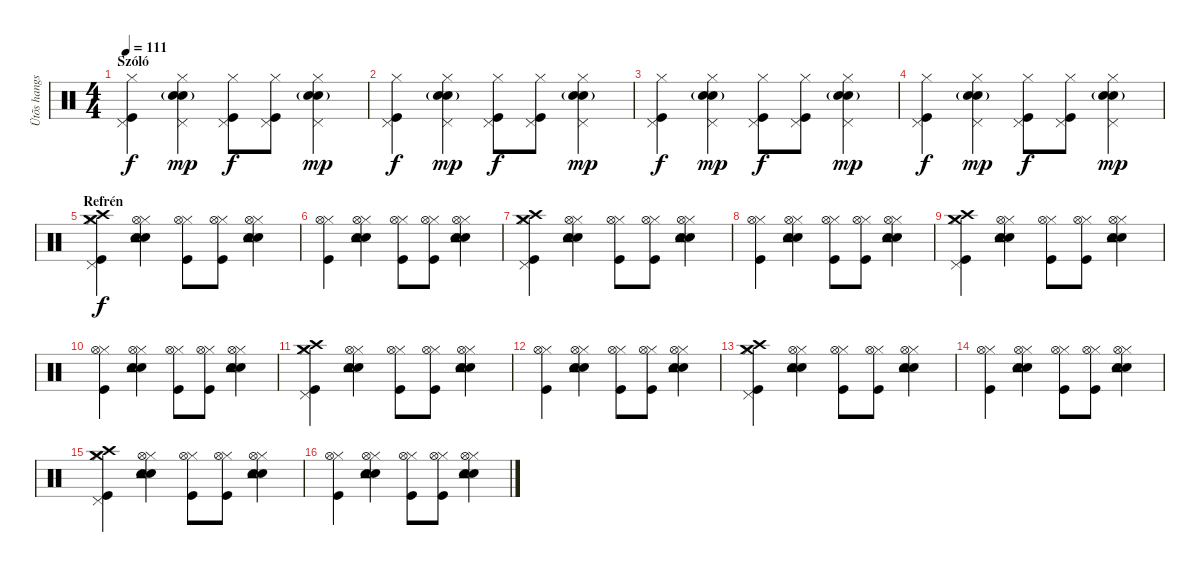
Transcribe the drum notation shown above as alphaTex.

\track ("Ütõs hangszer" "Ütõs hangs") {instrument percussion}
\staff {score}
\articulation defaults
\ts (4 4)
\section ("" "Szóló")
\tempo 111
\clef neutral
\ks c
("Hi-Hat (closed)" "Pedal Hi-Hat (hit)" "Kick (hit)").4{dy f} ("Hi-Hat (closed)" "Electric Snare (hit)"{g} "Snare (hit) 2" "Pedal Hi-Hat (hit)").4{dy mp} ("Hi-Hat (closed)" "Pedal Hi-Hat (hit)" "Kick (hit)").8{dy f} ("Hi-Hat (closed)" "Pedal Hi-Hat (hit)" "Kick (hit)").8 ("Hi-Hat (closed)" "Electric Snare (hit)"{g} "Snare (hit) 2" "Pedal Hi-Hat (hit)").4{dy mp} |
("Hi-Hat (closed)" "Pedal Hi-Hat (hit)" "Kick (hit)").4{dy f} ("Hi-Hat (closed)" "Electric Snare (hit)"{g} "Snare (hit) 2" "Pedal Hi-Hat (hit)").4{dy mp} ("Hi-Hat (closed)" "Pedal Hi-Hat (hit)" "Kick (hit)").8{dy f} ("Hi-Hat (closed)" "Pedal Hi-Hat (hit)" "Kick (hit)").8 ("Hi-Hat (closed)" "Electric Snare (hit)"{g} "Snare (hit) 2" "Pedal Hi-Hat (hit)").4{dy mp} |
("Hi-Hat (closed)" "Pedal Hi-Hat (hit)" "Kick (hit)").4{dy f} ("Hi-Hat (closed)" "Electric Snare (hit)"{g} "Snare (hit) 2" "Pedal Hi-Hat (hit)").4{dy mp} ("Hi-Hat (closed)" "Pedal Hi-Hat (hit)" "Kick (hit)").8{dy f} ("Hi-Hat (closed)" "Pedal Hi-Hat (hit)" "Kick (hit)").8 ("Hi-Hat (closed)" "Electric Snare (hit)"{g} "Snare (hit) 2" "Pedal Hi-Hat (hit)").4{dy mp} |
("Hi-Hat (closed)" "Pedal Hi-Hat (hit)" "Kick (hit)").4{dy f} ("Hi-Hat (closed)" "Electric Snare (hit)"{g} "Snare (hit) 2" "Pedal Hi-Hat (hit)").4{dy mp} ("Hi-Hat (closed)" "Pedal Hi-Hat (hit)" "Kick (hit)").8{dy f} ("Hi-Hat (closed)" "Pedal Hi-Hat (hit)" "Kick (hit)").8 ("Hi-Hat (closed)" "Electric Snare (hit)"{g} "Snare (hit) 2" "Pedal Hi-Hat (hit)").4{dy mp} |
\section ("" "Refrén")
("Hi-Hat (closed)" "Pedal Hi-Hat (hit)" "Crash high (hit)" "Crash medium (hit)" "Kick (hit)").4{dy f} ("Hi-Hat (closed)" "Electric Snare (hit)" "Snare (hit) 2" "Hi-Hat (open)" "Tambourine (hit)").4 ("Hi-Hat (closed)" "Hi-Hat (open)" "Kick (hit)").8 ("Hi-Hat (closed)" "Hi-Hat (open)" "Kick (hit)").8 ("Hi-Hat (closed)" "Electric Snare (hit)" "Snare (hit) 2" "Hi-Hat (open)" "Tambourine (hit)").4 |
("Hi-Hat (closed)" "Hi-Hat (open)" "Kick (hit)").4 ("Hi-Hat (closed)" "Electric Snare (hit)" "Snare (hit) 2" "Hi-Hat (open)" "Tambourine (hit)").4 ("Hi-Hat (closed)" "Hi-Hat (open)" "Kick (hit)").8 ("Hi-Hat (closed)" "Hi-Hat (open)" "Kick (hit)").8 ("Hi-Hat (closed)" "Electric Snare (hit)" "Snare (hit) 2" "Hi-Hat (open)" "Tambourine (hit)").4 |
("Hi-Hat (closed)" "Pedal Hi-Hat (hit)" "Crash high (hit)" "Crash medium (hit)" "Kick (hit)").4 ("Hi-Hat (closed)" "Electric Snare (hit)" "Snare (hit) 2" "Hi-Hat (open)" "Tambourine (hit)").4 ("Hi-Hat (closed)" "Hi-Hat (open)" "Kick (hit)").8 ("Hi-Hat (closed)" "Hi-Hat (open)" "Kick (hit)").8 ("Hi-Hat (closed)" "Electric Snare (hit)" "Snare (hit) 2" "Hi-Hat (open)" "Tambourine (hit)").4 |
("Hi-Hat (closed)" "Hi-Hat (open)" "Kick (hit)").4 ("Hi-Hat (closed)" "Electric Snare (hit)" "Snare (hit) 2" "Hi-Hat (open)" "Tambourine (hit)").4 ("Hi-Hat (closed)" "Hi-Hat (open)" "Kick (hit)").8 ("Hi-Hat (closed)" "Hi-Hat (open)" "Kick (hit)").8 ("Hi-Hat (closed)" "Electric Snare (hit)" "Snare (hit) 2" "Hi-Hat (open)" "Tambourine (hit)").4 |
("Hi-Hat (closed)" "Pedal Hi-Hat (hit)" "Crash high (hit)" "Crash medium (hit)" "Kick (hit)").4 ("Hi-Hat (closed)" "Electric Snare (hit)" "Snare (hit) 2" "Hi-Hat (open)" "Tambourine (hit)").4 ("Hi-Hat (closed)" "Hi-Hat (open)" "Kick (hit)").8 ("Hi-Hat (closed)" "Hi-Hat (open)" "Kick (hit)").8 ("Hi-Hat (closed)" "Electric Snare (hit)" "Snare (hit) 2" "Hi-Hat (open)" "Tambourine (hit)").4 |
("Hi-Hat (closed)" "Hi-Hat (open)" "Kick (hit)").4 ("Hi-Hat (closed)" "Electric Snare (hit)" "Snare (hit) 2" "Hi-Hat (open)" "Tambourine (hit)").4 ("Hi-Hat (closed)" "Hi-Hat (open)" "Kick (hit)").8 ("Hi-Hat (closed)" "Hi-Hat (open)" "Kick (hit)").8 ("Hi-Hat (closed)" "Electric Snare (hit)" "Snare (hit) 2" "Hi-Hat (open)" "Tambourine (hit)").4 |
("Hi-Hat (closed)" "Pedal Hi-Hat (hit)" "Crash high (hit)" "Crash medium (hit)" "Kick (hit)").4 ("Hi-Hat (closed)" "Electric Snare (hit)" "Snare (hit) 2" "Hi-Hat (open)" "Tambourine (hit)").4 ("Hi-Hat (closed)" "Hi-Hat (open)" "Kick (hit)").8 ("Hi-Hat (closed)" "Hi-Hat (open)" "Kick (hit)").8 ("Hi-Hat (closed)" "Electric Snare (hit)" "Snare (hit) 2" "Hi-Hat (open)" "Tambourine (hit)").4 |
("Hi-Hat (closed)" "Hi-Hat (open)" "Kick (hit)").4 ("Hi-Hat (closed)" "Electric Snare (hit)" "Snare (hit) 2" "Hi-Hat (open)" "Tambourine (hit)").4 ("Hi-Hat (closed)" "Hi-Hat (open)" "Kick (hit)").8 ("Hi-Hat (closed)" "Hi-Hat (open)" "Kick (hit)").8 ("Hi-Hat (closed)" "Electric Snare (hit)" "Snare (hit) 2" "Hi-Hat (open)" "Tambourine (hit)").4 |
("Hi-Hat (closed)" "Pedal Hi-Hat (hit)" "Crash high (hit)" "Crash medium (hit)" "Kick (hit)").4 ("Hi-Hat (closed)" "Electric Snare (hit)" "Snare (hit) 2" "Hi-Hat (open)" "Tambourine (hit)").4 ("Hi-Hat (closed)" "Hi-Hat (open)" "Kick (hit)").8 ("Hi-Hat (closed)" "Hi-Hat (open)" "Kick (hit)").8 ("Hi-Hat (closed)" "Electric Snare (hit)" "Snare (hit) 2" "Hi-Hat (open)" "Tambourine (hit)").4 |
("Hi-Hat (closed)" "Hi-Hat (open)" "Kick (hit)").4 ("Hi-Hat (closed)" "Electric Snare (hit)" "Snare (hit) 2" "Hi-Hat (open)" "Tambourine (hit)").4 ("Hi-Hat (closed)" "Hi-Hat (open)" "Kick (hit)").8 ("Hi-Hat (closed)" "Hi-Hat (open)" "Kick (hit)").8 ("Hi-Hat (closed)" "Electric Snare (hit)" "Snare (hit) 2" "Hi-Hat (open)" "Tambourine (hit)").4 |
("Hi-Hat (closed)" "Pedal Hi-Hat (hit)" "Crash high (hit)" "Crash medium (hit)" "Kick (hit)").4 ("Hi-Hat (closed)" "Electric Snare (hit)" "Snare (hit) 2" "Hi-Hat (open)" "Tambourine (hit)").4 ("Hi-Hat (closed)" "Hi-Hat (open)" "Kick (hit)").8 ("Hi-Hat (closed)" "Hi-Hat (open)" "Kick (hit)").8 ("Hi-Hat (closed)" "Electric Snare (hit)" "Snare (hit) 2" "Hi-Hat (open)" "Tambourine (hit)").4 |
("Hi-Hat (closed)" "Hi-Hat (open)" "Kick (hit)").4 ("Hi-Hat (closed)" "Electric Snare (hit)" "Snare (hit) 2" "Hi-Hat (open)" "Tambourine (hit)").4 ("Hi-Hat (closed)" "Hi-Hat (open)" "Kick (hit)").8 ("Hi-Hat (closed)" "Hi-Hat (open)" "Kick (hit)").8 ("Hi-Hat (closed)" "Electric Snare (hit)" "Snare (hit) 2" "Hi-Hat (open)" "Tambourine (hit)").4
